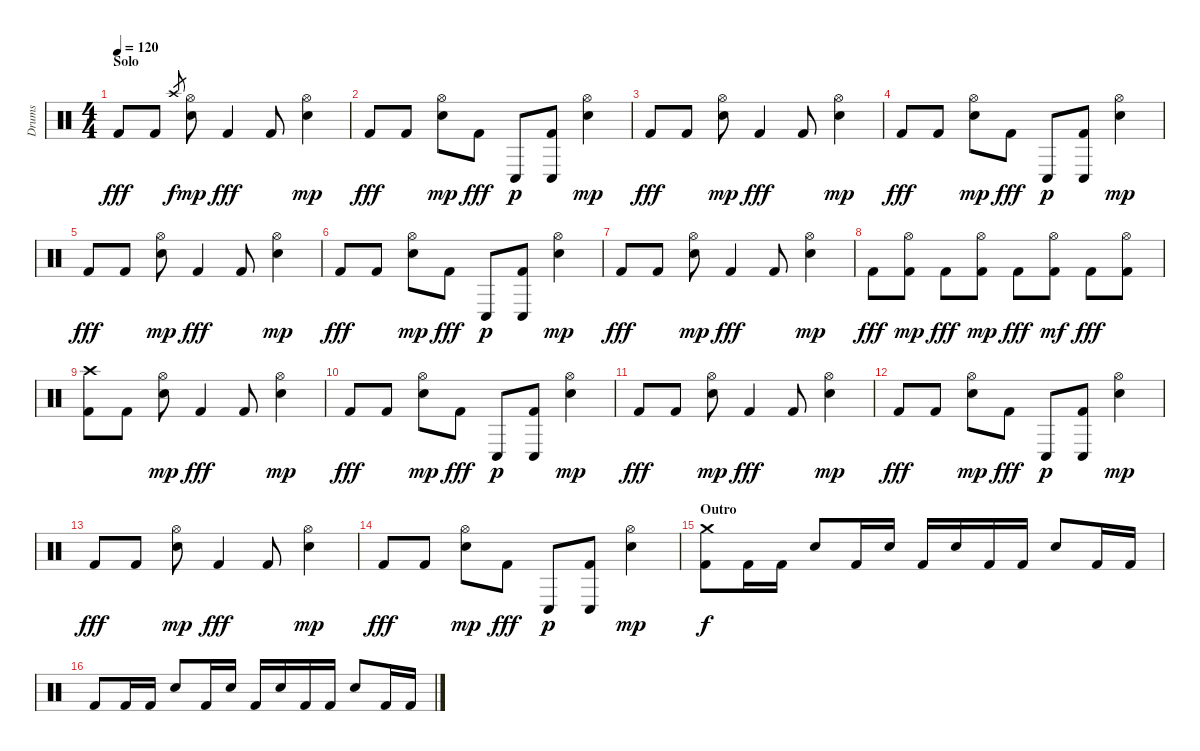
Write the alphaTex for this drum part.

\track ("Drums" "Drums") {instrument percussion}
\staff {score}
\articulation defaults
\ts (4 4)
\section ("" "Solo")
\tempo 120
\clef neutral
\ks c "Kick (hit) 2".8{dy fff} "Kick (hit) 2".8 "Crash high (hit)".8{gr dy f}
("Electric Snare (hit)" "Hi-Hat (open)").8{dy mp} "Kick (hit) 2".4{dy fff} "Kick (hit) 2".8 ("Electric Snare (hit)" "Hi-Hat (open)").4{dy mp} |
"Kick (hit) 2".8{dy fff} "Kick (hit) 2".8 ("Electric Snare (hit)" "Hi-Hat (open)").8{dy mp} "Kick (hit) 2".8{dy fff} "Conga low (hit)".8{dy p} ("Kick (hit) 2" "Conga low (hit)").8 ("Electric Snare (hit)" "Hi-Hat (open)").4{dy mp} |
"Kick (hit) 2".8{dy fff} "Kick (hit) 2".8 ("Electric Snare (hit)" "Hi-Hat (open)").8{dy mp} "Kick (hit) 2".4{dy fff} "Kick (hit) 2".8 ("Electric Snare (hit)" "Hi-Hat (open)").4{dy mp} |
"Kick (hit) 2".8{dy fff} "Kick (hit) 2".8 ("Electric Snare (hit)" "Hi-Hat (open)").8{dy mp} "Kick (hit) 2".8{dy fff} "Conga low (hit)".8{dy p} ("Kick (hit) 2" "Conga low (hit)").8 ("Electric Snare (hit)" "Hi-Hat (open)").4{dy mp} |
"Kick (hit) 2".8{dy fff} "Kick (hit) 2".8 ("Electric Snare (hit)" "Hi-Hat (open)").8{dy mp} "Kick (hit) 2".4{dy fff} "Kick (hit) 2".8 ("Electric Snare (hit)" "Hi-Hat (open)").4{dy mp} |
"Kick (hit) 2".8{dy fff} "Kick (hit) 2".8 ("Electric Snare (hit)" "Hi-Hat (open)").8{dy mp} "Kick (hit) 2".8{dy fff} "Conga low (hit)".8{dy p} ("Kick (hit) 2" "Conga low (hit)").8 ("Electric Snare (hit)" "Hi-Hat (open)").4{dy mp} |
"Kick (hit) 2".8{dy fff} "Kick (hit) 2".8 ("Electric Snare (hit)" "Hi-Hat (open)").8{dy mp} "Kick (hit) 2".4{dy fff} "Kick (hit) 2".8 ("Electric Snare (hit)" "Hi-Hat (open)").4{dy mp} |
"Kick (hit) 2".8{dy fff} ("Kick (hit) 2" "Hi-Hat (open)").8{dy mp} "Kick (hit) 2".8{dy fff} ("Kick (hit) 2" "Hi-Hat (open)").8{dy mp} "Kick (hit) 2".8{dy fff} ("Kick (hit) 2" "Hi-Hat (open)").8{dy mf} "Kick (hit) 2".8{dy fff} ("Kick (hit) 2" "Hi-Hat (open)").8 |
("Kick (hit) 2" "Crash high (hit)").8 "Kick (hit) 2".8 ("Electric Snare (hit)" "Hi-Hat (open)").8{dy mp} "Kick (hit) 2".4{dy fff} "Kick (hit) 2".8 ("Electric Snare (hit)" "Hi-Hat (open)").4{dy mp} |
"Kick (hit) 2".8{dy fff} "Kick (hit) 2".8 ("Electric Snare (hit)" "Hi-Hat (open)").8{dy mp} "Kick (hit) 2".8{dy fff} "Conga low (hit)".8{dy p} ("Kick (hit) 2" "Conga low (hit)").8 ("Electric Snare (hit)" "Hi-Hat (open)").4{dy mp} |
"Kick (hit) 2".8{dy fff} "Kick (hit) 2".8 ("Electric Snare (hit)" "Hi-Hat (open)").8{dy mp} "Kick (hit) 2".4{dy fff} "Kick (hit) 2".8 ("Electric Snare (hit)" "Hi-Hat (open)").4{dy mp} |
"Kick (hit) 2".8{dy fff} "Kick (hit) 2".8 ("Electric Snare (hit)" "Hi-Hat (open)").8{dy mp} "Kick (hit) 2".8{dy fff} "Conga low (hit)".8{dy p} ("Kick (hit) 2" "Conga low (hit)").8 ("Electric Snare (hit)" "Hi-Hat (open)").4{dy mp} |
"Kick (hit) 2".8{dy fff} "Kick (hit) 2".8 ("Electric Snare (hit)" "Hi-Hat (open)").8{dy mp} "Kick (hit) 2".4{dy fff} "Kick (hit) 2".8 ("Electric Snare (hit)" "Hi-Hat (open)").4{dy mp} |
"Kick (hit) 2".8{dy fff} "Kick (hit) 2".8 ("Electric Snare (hit)" "Hi-Hat (open)").8{dy mp} "Kick (hit) 2".8{dy fff} "Conga low (hit)".8{dy p} ("Kick (hit) 2" "Conga low (hit)").8 ("Electric Snare (hit)" "Hi-Hat (open)").4{dy mp} |
\section ("" "Outro")
("Kick (hit) 2" "Crash medium (hit)").8{dy f} "Kick (hit) 2".16 "Kick (hit) 2".16 "Electric Snare (hit)".8 "Kick (hit) 2".16 "Electric Snare (hit)".16 "Kick (hit) 2".16 "Electric Snare (hit)".16 "Kick (hit) 2".16 "Kick (hit) 2".16 "Electric Snare (hit)".8 "Kick (hit) 2".16 "Kick (hit) 2".16 |
"Kick (hit) 2".8 "Kick (hit) 2".16 "Kick (hit) 2".16 "Electric Snare (hit)".8 "Kick (hit) 2".16 "Electric Snare (hit)".16 "Kick (hit) 2".16 "Electric Snare (hit)".16 "Kick (hit) 2".16 "Kick (hit) 2".16 "Electric Snare (hit)".8 "Kick (hit) 2".16 "Kick (hit) 2".16
